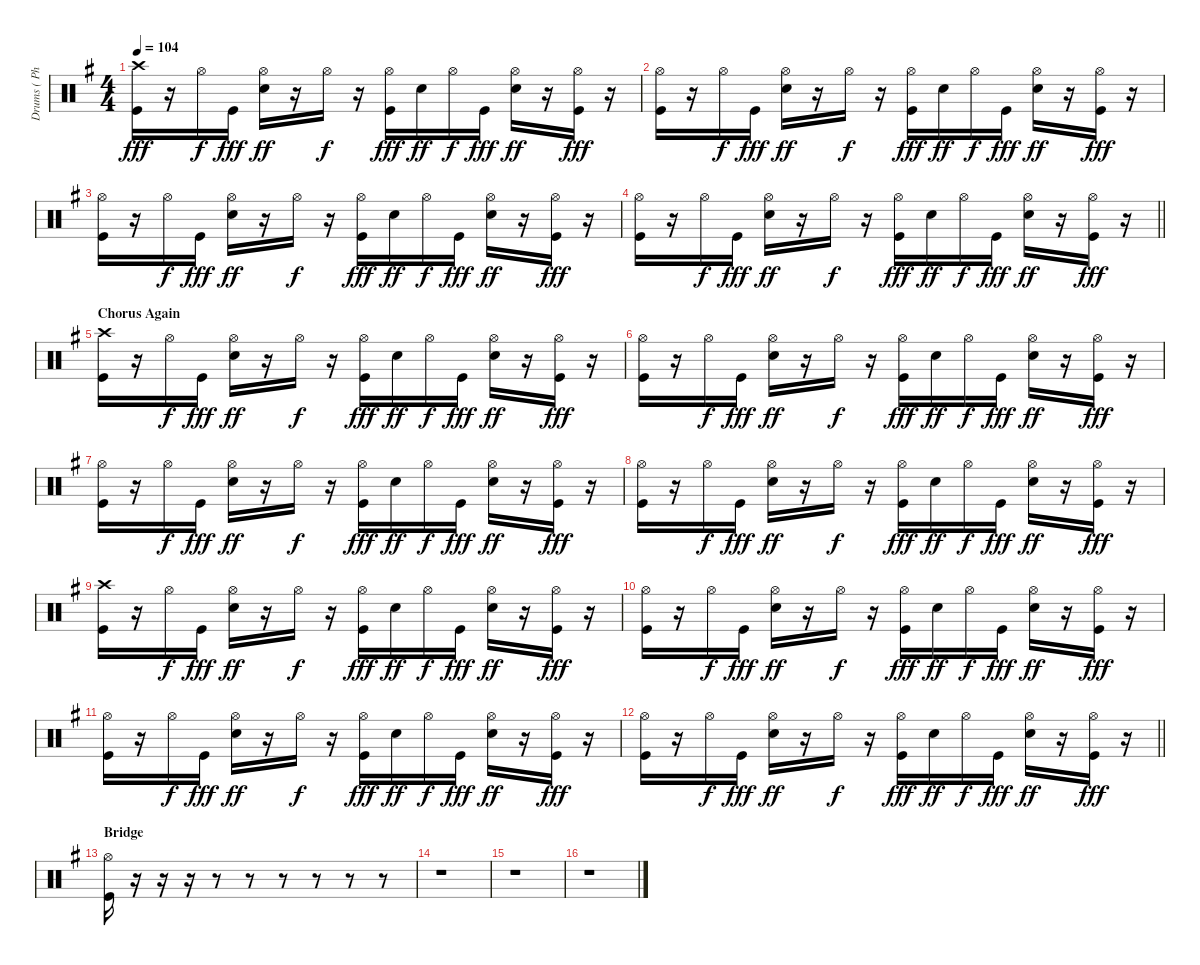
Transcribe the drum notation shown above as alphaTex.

\track ("Drums ( Phillip Selway )" "Drums ( Ph") {instrument percussion}
\staff {score}
\articulation defaults
\ts (4 4)
\tempo 104
\clef neutral
\ks eminor
("Crash high (hit)" "Kick (hit)").16{dy fff} r.16 "Hi-Hat (open)".16{dy f} "Kick (hit)".16{dy fff} ("Hi-Hat (open)" "Electric Snare (hit)").16{dy ff} r.16 "Hi-Hat (open)".16{dy f} r.16 ("Hi-Hat (open)" "Kick (hit)").16{dy fff} "Electric Snare (hit)".16{dy ff} "Hi-Hat (open)".16{dy f} "Kick (hit)".16{dy fff} ("Hi-Hat (open)" "Electric Snare (hit)").16{dy ff} r.16 ("Hi-Hat (open)" "Kick (hit)").16{dy fff} r.16 |
("Hi-Hat (open)" "Kick (hit)").16 r.16 "Hi-Hat (open)".16{dy f} "Kick (hit)".16{dy fff} ("Hi-Hat (open)" "Electric Snare (hit)").16{dy ff} r.16 "Hi-Hat (open)".16{dy f} r.16 ("Hi-Hat (open)" "Kick (hit)").16{dy fff} "Electric Snare (hit)".16{dy ff} "Hi-Hat (open)".16{dy f} "Kick (hit)".16{dy fff} ("Hi-Hat (open)" "Electric Snare (hit)").16{dy ff} r.16 ("Hi-Hat (open)" "Kick (hit)").16{dy fff} r.16 |
("Hi-Hat (open)" "Kick (hit)").16 r.16 "Hi-Hat (open)".16{dy f} "Kick (hit)".16{dy fff} ("Hi-Hat (open)" "Electric Snare (hit)").16{dy ff} r.16 "Hi-Hat (open)".16{dy f} r.16 ("Hi-Hat (open)" "Kick (hit)").16{dy fff} "Electric Snare (hit)".16{dy ff} "Hi-Hat (open)".16{dy f} "Kick (hit)".16{dy fff} ("Hi-Hat (open)" "Electric Snare (hit)").16{dy ff} r.16 ("Hi-Hat (open)" "Kick (hit)").16{dy fff} r.16 |
\barLineRight lightlight
("Hi-Hat (open)" "Kick (hit)").16 r.16 "Hi-Hat (open)".16{dy f} "Kick (hit)".16{dy fff} ("Hi-Hat (open)" "Electric Snare (hit)").16{dy ff} r.16 "Hi-Hat (open)".16{dy f} r.16 ("Hi-Hat (open)" "Kick (hit)").16{dy fff} "Electric Snare (hit)".16{dy ff} "Hi-Hat (open)".16{dy f} "Kick (hit)".16{dy fff} ("Hi-Hat (open)" "Electric Snare (hit)").16{dy ff} r.16 ("Hi-Hat (open)" "Kick (hit)").16{dy fff} r.16 |
\section ("" "Chorus Again")
("Crash high (hit)" "Kick (hit)").16 r.16 "Hi-Hat (open)".16{dy f} "Kick (hit)".16{dy fff} ("Hi-Hat (open)" "Electric Snare (hit)").16{dy ff} r.16 "Hi-Hat (open)".16{dy f} r.16 ("Hi-Hat (open)" "Kick (hit)").16{dy fff} "Electric Snare (hit)".16{dy ff} "Hi-Hat (open)".16{dy f} "Kick (hit)".16{dy fff} ("Hi-Hat (open)" "Electric Snare (hit)").16{dy ff} r.16 ("Hi-Hat (open)" "Kick (hit)").16{dy fff} r.16 |
("Hi-Hat (open)" "Kick (hit)").16 r.16 "Hi-Hat (open)".16{dy f} "Kick (hit)".16{dy fff} ("Hi-Hat (open)" "Electric Snare (hit)").16{dy ff} r.16 "Hi-Hat (open)".16{dy f} r.16 ("Hi-Hat (open)" "Kick (hit)").16{dy fff} "Electric Snare (hit)".16{dy ff} "Hi-Hat (open)".16{dy f} "Kick (hit)".16{dy fff} ("Hi-Hat (open)" "Electric Snare (hit)").16{dy ff} r.16 ("Hi-Hat (open)" "Kick (hit)").16{dy fff} r.16 |
("Hi-Hat (open)" "Kick (hit)").16 r.16 "Hi-Hat (open)".16{dy f} "Kick (hit)".16{dy fff} ("Hi-Hat (open)" "Electric Snare (hit)").16{dy ff} r.16 "Hi-Hat (open)".16{dy f} r.16 ("Hi-Hat (open)" "Kick (hit)").16{dy fff} "Electric Snare (hit)".16{dy ff} "Hi-Hat (open)".16{dy f} "Kick (hit)".16{dy fff} ("Hi-Hat (open)" "Electric Snare (hit)").16{dy ff} r.16 ("Hi-Hat (open)" "Kick (hit)").16{dy fff} r.16 |
("Hi-Hat (open)" "Kick (hit)").16 r.16 "Hi-Hat (open)".16{dy f} "Kick (hit)".16{dy fff} ("Hi-Hat (open)" "Electric Snare (hit)").16{dy ff} r.16 "Hi-Hat (open)".16{dy f} r.16 ("Hi-Hat (open)" "Kick (hit)").16{dy fff} "Electric Snare (hit)".16{dy ff} "Hi-Hat (open)".16{dy f} "Kick (hit)".16{dy fff} ("Hi-Hat (open)" "Electric Snare (hit)").16{dy ff} r.16 ("Hi-Hat (open)" "Kick (hit)").16{dy fff} r.16 |
("Crash high (hit)" "Kick (hit)").16 r.16 "Hi-Hat (open)".16{dy f} "Kick (hit)".16{dy fff} ("Hi-Hat (open)" "Electric Snare (hit)").16{dy ff} r.16 "Hi-Hat (open)".16{dy f} r.16 ("Hi-Hat (open)" "Kick (hit)").16{dy fff} "Electric Snare (hit)".16{dy ff} "Hi-Hat (open)".16{dy f} "Kick (hit)".16{dy fff} ("Hi-Hat (open)" "Electric Snare (hit)").16{dy ff} r.16 ("Hi-Hat (open)" "Kick (hit)").16{dy fff} r.16 |
("Hi-Hat (open)" "Kick (hit)").16 r.16 "Hi-Hat (open)".16{dy f} "Kick (hit)".16{dy fff} ("Hi-Hat (open)" "Electric Snare (hit)").16{dy ff} r.16 "Hi-Hat (open)".16{dy f} r.16 ("Hi-Hat (open)" "Kick (hit)").16{dy fff} "Electric Snare (hit)".16{dy ff} "Hi-Hat (open)".16{dy f} "Kick (hit)".16{dy fff} ("Hi-Hat (open)" "Electric Snare (hit)").16{dy ff} r.16 ("Hi-Hat (open)" "Kick (hit)").16{dy fff} r.16 |
("Hi-Hat (open)" "Kick (hit)").16 r.16 "Hi-Hat (open)".16{dy f} "Kick (hit)".16{dy fff} ("Hi-Hat (open)" "Electric Snare (hit)").16{dy ff} r.16 "Hi-Hat (open)".16{dy f} r.16 ("Hi-Hat (open)" "Kick (hit)").16{dy fff} "Electric Snare (hit)".16{dy ff} "Hi-Hat (open)".16{dy f} "Kick (hit)".16{dy fff} ("Hi-Hat (open)" "Electric Snare (hit)").16{dy ff} r.16 ("Hi-Hat (open)" "Kick (hit)").16{dy fff} r.16 |
\barLineRight lightlight
("Hi-Hat (open)" "Kick (hit)").16 r.16 "Hi-Hat (open)".16{dy f} "Kick (hit)".16{dy fff} ("Hi-Hat (open)" "Electric Snare (hit)").16{dy ff} r.16 "Hi-Hat (open)".16{dy f} r.16 ("Hi-Hat (open)" "Kick (hit)").16{dy fff} "Electric Snare (hit)".16{dy ff} "Hi-Hat (open)".16{dy f} "Kick (hit)".16{dy fff} ("Hi-Hat (open)" "Electric Snare (hit)").16{dy ff} r.16 ("Hi-Hat (open)" "Kick (hit)").16{dy fff} r.16 |
\section ("" "Bridge")
("Hi-Hat (open)" "Kick (hit)").16 r.16 r.16 r.16 r.8 r.8 r.8 r.8 r.8 r.8 |
r.1 |
r.1 |
r.1
